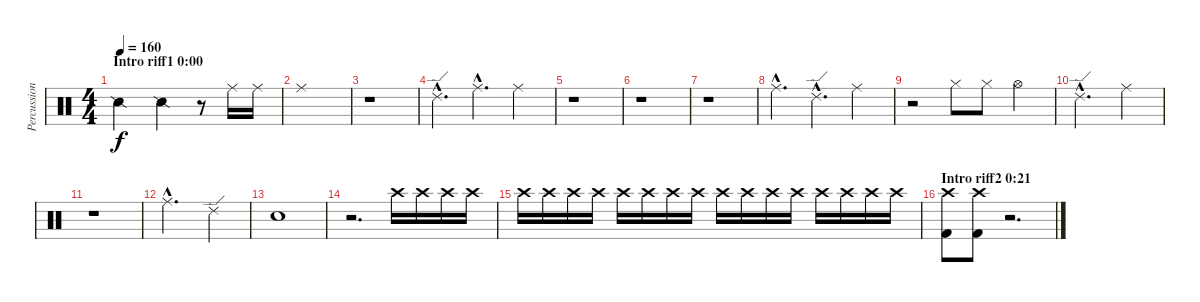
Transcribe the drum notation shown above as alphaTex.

\track ("Percussion" "Percussion") {instrument percussion}
\staff {score}
\articulation defaults
\ts (4 4)
\section ("" "Intro riff1 0:00")
\tempo 160
\clef neutral
\ks c "Snare (side stick) 2".2{dy f} "Snare (side stick) 2".4
r.8 "Ride (middle)".16{volume 7} "Ride (middle)".16{volume 8} |
"Ride (middle)".1{volume 9} |
r.1 |
"Ride (edge) 2"{hac}.4{d volume 7} "Ride (middle)"{hac}.4{d} "Ride (middle)".4 |
r.1 |
r.1 |
r.1 |
"Ride (middle)"{hac}.4{d} "Ride (edge) 2"{hac}.4{d} "Ride (middle)".4 |
r.2 "Hi-Hat (closed)".8 "Hi-Hat (closed)".8 "Hi-Hat (open)".4 |
"Ride (edge) 2"{hac}.2{d balance 14} "Ride (middle)".4{balance 12} |
r.1 |
"Ride (middle)"{hac}.2{d balance 12} "Ride (edge) 2".4{balance 14} |
"Snare (hit)".1{volume 1} |
r.2{d} "Crash high (hit)".16{volume 16 balance 8} "Crash high (hit)".16 "Crash high (hit)".16 "Crash high (hit)".16 |
"Crash high (hit)".16 "Crash high (hit)".16 "Crash high (hit)".16 "Crash high (hit)".16 "Crash high (hit)".16 "Crash high (hit)".16 "Crash high (hit)".16 "Crash high (hit)".16 "Crash high (hit)".16 "Crash high (hit)".16 "Crash high (hit)".16 "Crash high (hit)".16 "Crash high (hit)".16 "Crash high (hit)".16 "Crash high (hit)".16 "Crash high (hit)".16 |
\section ("" "Intro riff2 0:21")
("Crash high (hit)" "Kick (hit) 2").8 ("Crash high (hit)" "Kick (hit) 2").8 r.2{d volume 0}
